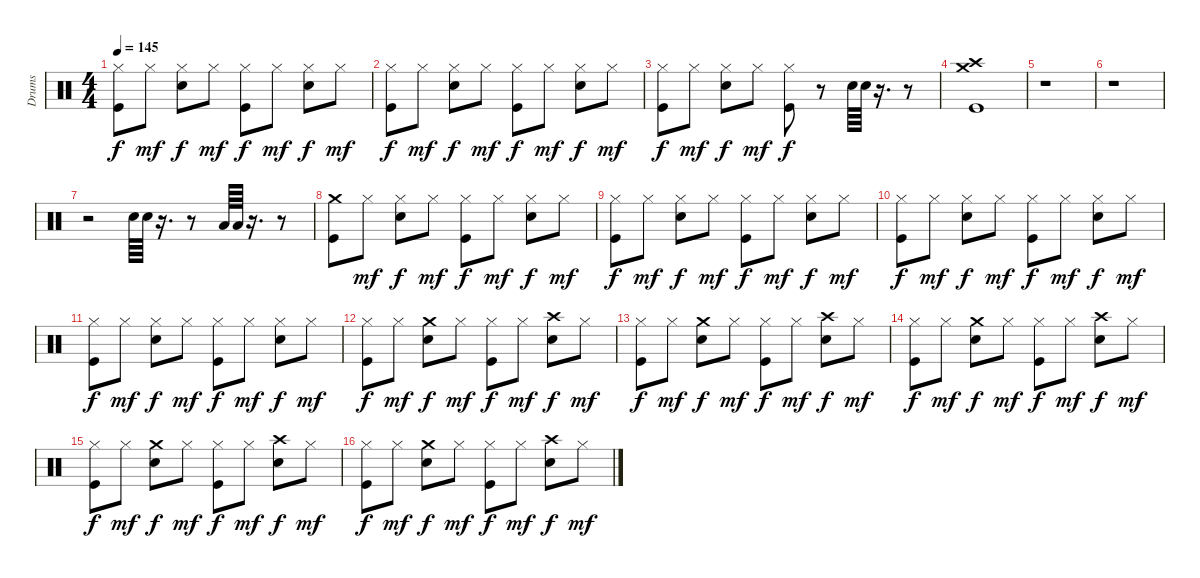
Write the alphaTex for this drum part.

\track ("Drums" "Drums") {instrument percussion}
\staff {score}
\articulation defaults
\ts (4 4)
\tempo 145
\clef neutral
\ks c
("Hi-Hat (closed)" "Kick (hit)").8{dy f} "Hi-Hat (closed)".8{dy mf} ("Hi-Hat (closed)" "Snare (hit) 2").8{dy f} "Hi-Hat (closed)".8{dy mf} ("Hi-Hat (closed)" "Kick (hit)").8{dy f} "Hi-Hat (closed)".8{dy mf} ("Hi-Hat (closed)" "Snare (hit) 2").8{dy f} "Hi-Hat (closed)".8{dy mf} |
("Hi-Hat (closed)" "Kick (hit)").8{dy f} "Hi-Hat (closed)".8{dy mf} ("Hi-Hat (closed)" "Snare (hit) 2").8{dy f} "Hi-Hat (closed)".8{dy mf} ("Hi-Hat (closed)" "Kick (hit)").8{dy f} "Hi-Hat (closed)".8{dy mf} ("Hi-Hat (closed)" "Snare (hit) 2").8{dy f} "Hi-Hat (closed)".8{dy mf} |
("Hi-Hat (closed)" "Kick (hit)").8{dy f} "Hi-Hat (closed)".8{dy mf} ("Hi-Hat (closed)" "Snare (hit) 2").8{dy f} "Hi-Hat (closed)".8{dy mf} ("Hi-Hat (closed)" "Kick (hit)").8{dy f} r.8 "Snare (hit) 2".64 "Snare (hit) 2".64 r.16{d} r.8 |
("Kick (hit)" "Crash high (hit)" "Crash medium (hit)").1 |
r.1 |
r.1 |
r.2 "Snare (hit) 2".64 "Snare (hit) 2".64 r.16{d} r.8 "Low Tom (hit)".64 "Low Tom (hit)".64 r.16{d} r.8 |
("Crash medium (hit)" "Kick (hit)").8 "Hi-Hat (closed)".8{dy mf} ("Hi-Hat (closed)" "Snare (hit) 2").8{dy f} "Hi-Hat (closed)".8{dy mf} ("Hi-Hat (closed)" "Kick (hit)").8{dy f} "Hi-Hat (closed)".8{dy mf} ("Hi-Hat (closed)" "Snare (hit) 2").8{dy f} "Hi-Hat (closed)".8{dy mf} |
("Hi-Hat (closed)" "Kick (hit)").8{dy f} "Hi-Hat (closed)".8{dy mf} ("Hi-Hat (closed)" "Snare (hit) 2").8{dy f} "Hi-Hat (closed)".8{dy mf} ("Hi-Hat (closed)" "Kick (hit)").8{dy f} "Hi-Hat (closed)".8{dy mf} ("Hi-Hat (closed)" "Snare (hit) 2").8{dy f} "Hi-Hat (closed)".8{dy mf} |
("Hi-Hat (closed)" "Kick (hit)").8{dy f} "Hi-Hat (closed)".8{dy mf} ("Hi-Hat (closed)" "Snare (hit) 2").8{dy f} "Hi-Hat (closed)".8{dy mf} ("Hi-Hat (closed)" "Kick (hit)").8{dy f} "Hi-Hat (closed)".8{dy mf} ("Hi-Hat (closed)" "Snare (hit) 2").8{dy f} "Hi-Hat (closed)".8{dy mf} |
("Hi-Hat (closed)" "Kick (hit)").8{dy f} "Hi-Hat (closed)".8{dy mf} ("Hi-Hat (closed)" "Snare (hit) 2").8{dy f} "Hi-Hat (closed)".8{dy mf} ("Hi-Hat (closed)" "Kick (hit)").8{dy f} "Hi-Hat (closed)".8{dy mf} ("Hi-Hat (closed)" "Snare (hit) 2").8{dy f} "Hi-Hat (closed)".8{dy mf} |
("Hi-Hat (closed)" "Kick (hit)").8{dy f} "Hi-Hat (closed)".8{dy mf} ("Snare (hit) 2" "Crash medium (hit)").8{dy f} "Hi-Hat (closed)".8{dy mf} ("Hi-Hat (closed)" "Kick (hit)").8{dy f} "Hi-Hat (closed)".8{dy mf} ("Snare (hit) 2" "Crash high (hit)").8{dy f} "Hi-Hat (closed)".8{dy mf} |
("Hi-Hat (closed)" "Kick (hit)").8{dy f} "Hi-Hat (closed)".8{dy mf} ("Snare (hit) 2" "Crash medium (hit)").8{dy f} "Hi-Hat (closed)".8{dy mf} ("Hi-Hat (closed)" "Kick (hit)").8{dy f} "Hi-Hat (closed)".8{dy mf} ("Snare (hit) 2" "Crash high (hit)").8{dy f} "Hi-Hat (closed)".8{dy mf} |
("Hi-Hat (closed)" "Kick (hit)").8{dy f} "Hi-Hat (closed)".8{dy mf} ("Snare (hit) 2" "Crash medium (hit)").8{dy f} "Hi-Hat (closed)".8{dy mf} ("Hi-Hat (closed)" "Kick (hit)").8{dy f} "Hi-Hat (closed)".8{dy mf} ("Snare (hit) 2" "Crash high (hit)").8{dy f} "Hi-Hat (closed)".8{dy mf} |
("Hi-Hat (closed)" "Kick (hit)").8{dy f} "Hi-Hat (closed)".8{dy mf} ("Snare (hit) 2" "Crash medium (hit)").8{dy f} "Hi-Hat (closed)".8{dy mf} ("Hi-Hat (closed)" "Kick (hit)").8{dy f} "Hi-Hat (closed)".8{dy mf} ("Snare (hit) 2" "Crash high (hit)").8{dy f} "Hi-Hat (closed)".8{dy mf} |
("Hi-Hat (closed)" "Kick (hit)").8{dy f} "Hi-Hat (closed)".8{dy mf} ("Snare (hit) 2" "Crash medium (hit)").8{dy f} "Hi-Hat (closed)".8{dy mf} ("Hi-Hat (closed)" "Kick (hit)").8{dy f} "Hi-Hat (closed)".8{dy mf} ("Snare (hit) 2" "Crash high (hit)").8{dy f} "Hi-Hat (closed)".8{dy mf}
